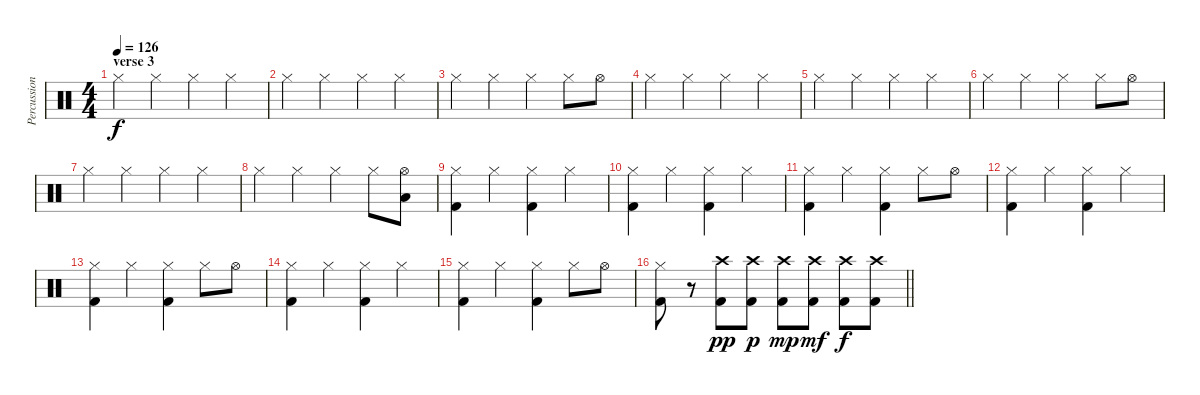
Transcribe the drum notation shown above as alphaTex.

\track ("Percussion" "Percussion") {instrument percussion}
\staff {score}
\articulation defaults
\ts (4 4)
\section ("" "verse 3")
\tempo 126
\clef neutral
\ks c "Hi-Hat (closed)".4{dy f} "Hi-Hat (closed)".4 "Hi-Hat (closed)".4 "Hi-Hat (closed)".4
|
"Hi-Hat (closed)".4 "Hi-Hat (closed)".4 "Hi-Hat (closed)".4 "Hi-Hat (closed)".4 |
"Hi-Hat (closed)".4 "Hi-Hat (closed)".4 "Hi-Hat (closed)".4 "Hi-Hat (closed)".8 "Hi-Hat (open)".8 |
"Hi-Hat (closed)".4 "Hi-Hat (closed)".4 "Hi-Hat (closed)".4 "Hi-Hat (closed)".4 |
"Hi-Hat (closed)".4 "Hi-Hat (closed)".4 "Hi-Hat (closed)".4 "Hi-Hat (closed)".4 |
"Hi-Hat (closed)".4 "Hi-Hat (closed)".4 "Hi-Hat (closed)".4 "Hi-Hat (closed)".8 "Hi-Hat (open)".8 |
"Hi-Hat (closed)".4 "Hi-Hat (closed)".4 "Hi-Hat (closed)".4 "Hi-Hat (closed)".4 |
"Hi-Hat (closed)".4 "Hi-Hat (closed)".4 "Hi-Hat (closed)".4 "Hi-Hat (closed)".8 ("Hi-Hat (open)" "Low Floor Tom (hit)").8 |
("Hi-Hat (closed)" "Kick (hit) 2").4 "Hi-Hat (closed)".4 ("Hi-Hat (closed)" "Kick (hit) 2").4 "Hi-Hat (closed)".4 |
("Hi-Hat (closed)" "Kick (hit) 2").4 "Hi-Hat (closed)".4 ("Hi-Hat (closed)" "Kick (hit) 2").4 "Hi-Hat (closed)".4 |
("Hi-Hat (closed)" "Kick (hit) 2").4 "Hi-Hat (closed)".4 ("Hi-Hat (closed)" "Kick (hit) 2").4 "Hi-Hat (closed)".8 "Hi-Hat (open)".8 |
("Hi-Hat (closed)" "Kick (hit) 2").4 "Hi-Hat (closed)".4 ("Hi-Hat (closed)" "Kick (hit) 2").4 "Hi-Hat (closed)".4 |
("Hi-Hat (closed)" "Kick (hit) 2").4 "Hi-Hat (closed)".4 ("Hi-Hat (closed)" "Kick (hit) 2").4 "Hi-Hat (closed)".8 "Hi-Hat (open)".8 |
("Hi-Hat (closed)" "Kick (hit) 2").4 "Hi-Hat (closed)".4 ("Hi-Hat (closed)" "Kick (hit) 2").4 "Hi-Hat (closed)".4 |
("Hi-Hat (closed)" "Kick (hit) 2").4 "Hi-Hat (closed)".4 ("Hi-Hat (closed)" "Kick (hit) 2").4 "Hi-Hat (closed)".8 "Hi-Hat (open)".8 |
\barLineRight lightlight
("Hi-Hat (closed)" "Kick (hit) 2").8 r.8 ("Kick (hit) 2" "Crash high (hit)").8{dy pp} ("Kick (hit) 2" "Crash high (hit)").8{dy p} ("Kick (hit) 2" "Crash high (hit)").8{dy mp} ("Kick (hit) 2" "Crash high (hit)").8{dy mf} ("Kick (hit) 2" "Crash high (hit)").8{dy f} ("Kick (hit) 2" "Crash high (hit)").8
